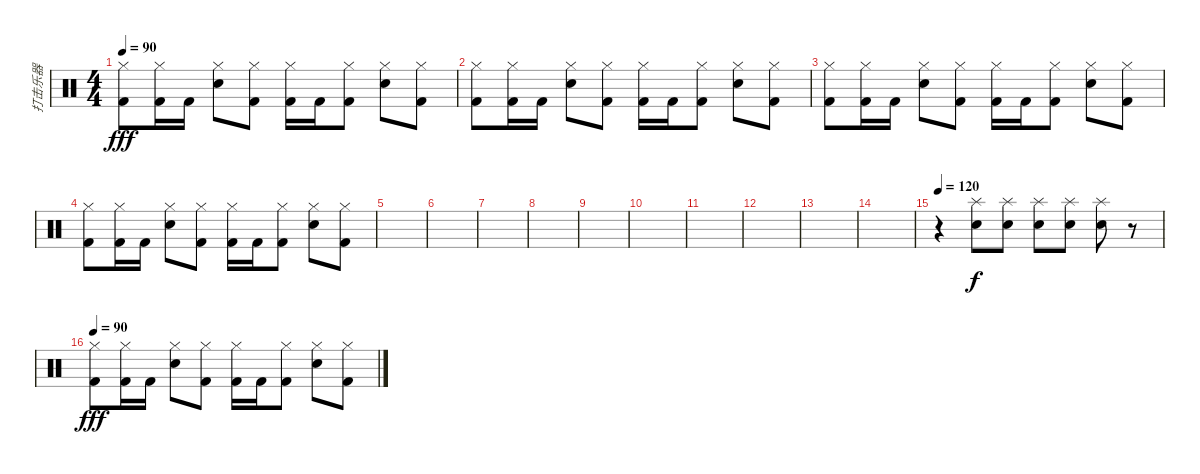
\track ("打击乐器" "打击乐器") {instrument percussion}
\staff {score}
\articulation defaults
\ts (4 4)
\tempo 90
\clef neutral
\ks c
("Hi-Hat (closed)" "Kick (hit) 2").8{dy fff} ("Hi-Hat (closed)" "Kick (hit) 2").16 "Kick (hit) 2".16 ("Hi-Hat (closed)" "Electric Snare (hit)").8 ("Hi-Hat (closed)" "Kick (hit) 2").8 ("Hi-Hat (closed)" "Kick (hit) 2").16 "Kick (hit) 2".16 ("Hi-Hat (closed)" "Kick (hit) 2").8 ("Hi-Hat (closed)" "Electric Snare (hit)").8 ("Hi-Hat (closed)" "Kick (hit) 2").8 |
("Hi-Hat (closed)" "Kick (hit) 2").8 ("Hi-Hat (closed)" "Kick (hit) 2").16 "Kick (hit) 2".16 ("Hi-Hat (closed)" "Electric Snare (hit)").8 ("Hi-Hat (closed)" "Kick (hit) 2").8 ("Hi-Hat (closed)" "Kick (hit) 2").16 "Kick (hit) 2".16 ("Hi-Hat (closed)" "Kick (hit) 2").8 ("Hi-Hat (closed)" "Electric Snare (hit)").8 ("Hi-Hat (closed)" "Kick (hit) 2").8 |
("Hi-Hat (closed)" "Kick (hit) 2").8 ("Hi-Hat (closed)" "Kick (hit) 2").16 "Kick (hit) 2".16 ("Hi-Hat (closed)" "Electric Snare (hit)").8 ("Hi-Hat (closed)" "Kick (hit) 2").8 ("Hi-Hat (closed)" "Kick (hit) 2").16 "Kick (hit) 2".16 ("Hi-Hat (closed)" "Kick (hit) 2").8 ("Hi-Hat (closed)" "Electric Snare (hit)").8 ("Hi-Hat (closed)" "Kick (hit) 2").8 |
("Hi-Hat (closed)" "Kick (hit) 2").8 ("Hi-Hat (closed)" "Kick (hit) 2").16 "Kick (hit) 2".16 ("Hi-Hat (closed)" "Electric Snare (hit)").8 ("Hi-Hat (closed)" "Kick (hit) 2").8 ("Hi-Hat (closed)" "Kick (hit) 2").16 "Kick (hit) 2".16 ("Hi-Hat (closed)" "Kick (hit) 2").8 ("Hi-Hat (closed)" "Electric Snare (hit)").8 ("Hi-Hat (closed)" "Kick (hit) 2").8 |
|
|
|
|
|
|
|
|
|
|
\tempo 120
r.4 ("Splash (hit)" "Snare (hit) 2").8{dy f} ("Splash (hit)" "Snare (hit) 2").8 ("Splash (hit)" "Snare (hit) 2").8 ("Splash (hit)" "Snare (hit) 2").8 ("Splash (hit)" "Snare (hit) 2").8 r.8 |
\tempo 90
("Hi-Hat (closed)" "Kick (hit) 2").8{dy fff} ("Hi-Hat (closed)" "Kick (hit) 2").16 "Kick (hit) 2".16 ("Hi-Hat (closed)" "Electric Snare (hit)").8 ("Hi-Hat (closed)" "Kick (hit) 2").8 ("Hi-Hat (closed)" "Kick (hit) 2").16 "Kick (hit) 2".16 ("Hi-Hat (closed)" "Kick (hit) 2").8 ("Hi-Hat (closed)" "Electric Snare (hit)").8 ("Hi-Hat (closed)" "Kick (hit) 2").8
